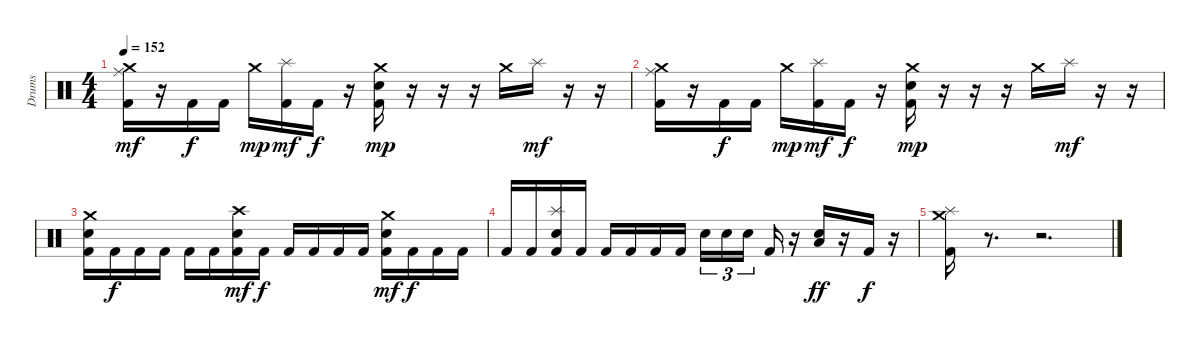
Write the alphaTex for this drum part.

\track ("Drums" "Drums") {instrument percussion}
\staff {score}
\articulation defaults
\ts (4 4)
\tempo 152
\clef neutral
\ks c
("Crash medium (hit)" "Ride (middle)" "Kick (hit) 2").16{dy mf} r.16 "Kick (hit) 2".16{dy f} "Kick (hit) 2".16 "Crash medium (hit)".16{dy mp} ("Splash (hit)" "Kick (hit) 2").16{dy mf} "Kick (hit) 2".16{dy f} r.16 ("Crash medium (hit)" "Snare (hit) 2" "Kick (hit) 2").16{dy mp} r.16 r.16 r.16 "Crash medium (hit)".16 "Splash (hit)".16{dy mf} r.16 r.16 |
("Crash medium (hit)" "Ride (middle)" "Kick (hit) 2").16 r.16 "Kick (hit) 2".16{dy f} "Kick (hit) 2".16 "Crash medium (hit)".16{dy mp} ("Splash (hit)" "Kick (hit) 2").16{dy mf} "Kick (hit) 2".16{dy f} r.16 ("Crash medium (hit)" "Snare (hit) 2" "Kick (hit) 2").16{dy mp} r.16 r.16 r.16 "Crash medium (hit)".16 "Splash (hit)".16{dy mf} r.16 r.16 |
("Crash medium (hit)" "Snare (hit) 2" "Kick (hit) 2").16 "Kick (hit) 2".16{dy f} "Kick (hit) 2".16 "Kick (hit) 2".16 "Kick (hit) 2".16 "Kick (hit) 2".16 ("Crash high (hit)" "Snare (hit) 2" "Kick (hit) 2").16{dy mf} "Kick (hit) 2".16{dy f} "Kick (hit) 2".16 "Kick (hit) 2".16 "Kick (hit) 2".16 "Kick (hit) 2".16 ("Crash medium (hit)" "Snare (hit) 2" "Kick (hit) 2").16{dy mf} "Kick (hit) 2".16{dy f} "Kick (hit) 2".16 "Kick (hit) 2".16 |
"Kick (hit) 2".16 "Kick (hit) 2".16 ("Splash (hit)" "Snare (hit) 2" "Kick (hit) 2").16 "Kick (hit) 2".16 "Kick (hit) 2".16 "Kick (hit) 2".16 "Kick (hit) 2".16 "Kick (hit) 2".16 "Snare (hit) 2".16{tu (3 2)} "Snare (hit) 2".16{tu (3 2)} "Snare (hit) 2".16{tu (3 2)} "Kick (hit) 2".16 r.16 ("Low Floor Tom (hit)" "Snare (hit) 2").16{dy ff} r.16 "Kick (hit) 2".16{dy f} r.16 |
("Crash medium (hit)" "Splash (hit)" "Kick (hit) 2").16 r.8{d} r.2{d}
